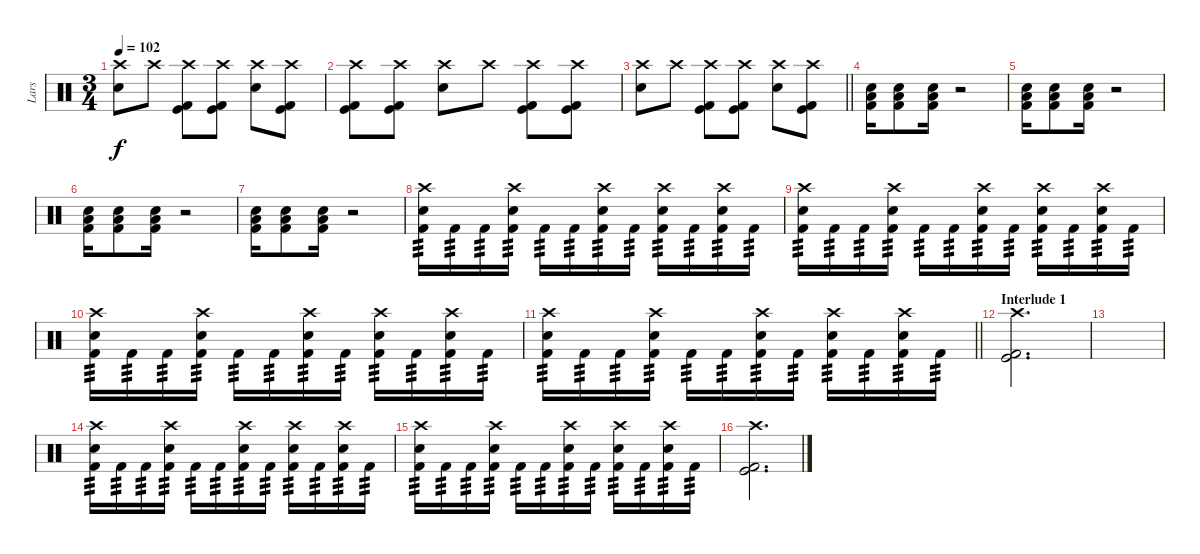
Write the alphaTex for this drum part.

\track ("Lars" "Lars") {instrument percussion}
\staff {score}
\articulation defaults
\ts (3 4)
\tempo 102
\clef neutral
\ks c
("Crash high (hit)" "Electric Snare (hit)").8{dy f} "Crash high (hit)".8 ("Crash high (hit)" "Kick (hit)" "Kick (hit) 2").8 ("Crash high (hit)" "Kick (hit)" "Kick (hit) 2").8 ("Crash high (hit)" "Electric Snare (hit)").8 ("Crash high (hit)" "Kick (hit)" "Kick (hit) 2").8 |
("Crash high (hit)" "Kick (hit)" "Kick (hit) 2").8 ("Crash high (hit)" "Kick (hit)" "Kick (hit) 2").8 ("Crash high (hit)" "Electric Snare (hit)").8 "Crash high (hit)".8 ("Crash high (hit)" "Kick (hit)" "Kick (hit) 2").8 ("Crash high (hit)" "Kick (hit)" "Kick (hit) 2").8 |
\barLineRight lightlight
("Crash high (hit)" "Electric Snare (hit)").8 "Crash high (hit)".8 ("Crash high (hit)" "Kick (hit)" "Kick (hit) 2").8 ("Crash high (hit)" "Kick (hit)" "Kick (hit) 2").8 ("Crash high (hit)" "Electric Snare (hit)").8 ("Crash high (hit)" "Kick (hit)" "Kick (hit) 2").8 |
\section ("" "")
("Electric Snare (hit)" "Low Floor Tom (hit)" "Kick (hit) 2").16 ("Electric Snare (hit)" "Low Floor Tom (hit)" "Kick (hit) 2").8 ("Electric Snare (hit)" "Low Floor Tom (hit)" "Kick (hit) 2").16 r.2 |
("Electric Snare (hit)" "Low Floor Tom (hit)" "Kick (hit) 2").16 ("Electric Snare (hit)" "Low Floor Tom (hit)" "Kick (hit) 2").8 ("Electric Snare (hit)" "Low Floor Tom (hit)" "Kick (hit) 2").16 r.2 |
("Electric Snare (hit)" "Low Floor Tom (hit)" "Kick (hit) 2").16 ("Electric Snare (hit)" "Low Floor Tom (hit)" "Kick (hit) 2").8 ("Electric Snare (hit)" "Low Floor Tom (hit)" "Kick (hit) 2").16 r.2 |
("Electric Snare (hit)" "Low Floor Tom (hit)" "Kick (hit) 2").16 ("Electric Snare (hit)" "Low Floor Tom (hit)" "Kick (hit) 2").8 ("Electric Snare (hit)" "Low Floor Tom (hit)" "Kick (hit) 2").16 r.2 |
("Crash high (hit)" "Electric Snare (hit)" "Kick (hit) 2").16{tp 3} "Kick (hit) 2".16{tp 3} "Kick (hit) 2".16{tp 3} ("Crash high (hit)" "Electric Snare (hit)" "Kick (hit) 2").16{tp 3} "Kick (hit) 2".16{tp 3} "Kick (hit) 2".16{tp 3} ("Crash high (hit)" "Electric Snare (hit)" "Kick (hit) 2").16{tp 3} "Kick (hit) 2".16{tp 3} ("Crash high (hit)" "Electric Snare (hit)" "Kick (hit) 2").16{tp 3} "Kick (hit) 2".16{tp 3} ("Crash high (hit)" "Electric Snare (hit)" "Kick (hit) 2").16{tp 3} "Kick (hit) 2".16{tp 3} |
("Crash high (hit)" "Electric Snare (hit)" "Kick (hit) 2").16{tp 3} "Kick (hit) 2".16{tp 3} "Kick (hit) 2".16{tp 3} ("Crash high (hit)" "Electric Snare (hit)" "Kick (hit) 2").16{tp 3} "Kick (hit) 2".16{tp 3} "Kick (hit) 2".16{tp 3} ("Crash high (hit)" "Electric Snare (hit)" "Kick (hit) 2").16{tp 3} "Kick (hit) 2".16{tp 3} ("Crash high (hit)" "Electric Snare (hit)" "Kick (hit) 2").16{tp 3} "Kick (hit) 2".16{tp 3} ("Crash high (hit)" "Electric Snare (hit)" "Kick (hit) 2").16{tp 3} "Kick (hit) 2".16{tp 3} |
("Crash high (hit)" "Electric Snare (hit)" "Kick (hit) 2").16{tp 3} "Kick (hit) 2".16{tp 3} "Kick (hit) 2".16{tp 3} ("Crash high (hit)" "Electric Snare (hit)" "Kick (hit) 2").16{tp 3} "Kick (hit) 2".16{tp 3} "Kick (hit) 2".16{tp 3} ("Crash high (hit)" "Electric Snare (hit)" "Kick (hit) 2").16{tp 3} "Kick (hit) 2".16{tp 3} ("Crash high (hit)" "Electric Snare (hit)" "Kick (hit) 2").16{tp 3} "Kick (hit) 2".16{tp 3} ("Crash high (hit)" "Electric Snare (hit)" "Kick (hit) 2").16{tp 3} "Kick (hit) 2".16{tp 3} |
\barLineRight lightlight
("Crash high (hit)" "Electric Snare (hit)" "Kick (hit) 2").16{tp 3} "Kick (hit) 2".16{tp 3} "Kick (hit) 2".16{tp 3} ("Crash high (hit)" "Electric Snare (hit)" "Kick (hit) 2").16{tp 3} "Kick (hit) 2".16{tp 3} "Kick (hit) 2".16{tp 3} ("Crash high (hit)" "Electric Snare (hit)" "Kick (hit) 2").16{tp 3} "Kick (hit) 2".16{tp 3} ("Crash high (hit)" "Electric Snare (hit)" "Kick (hit) 2").16{tp 3} "Kick (hit) 2".16{tp 3} ("Crash high (hit)" "Electric Snare (hit)" "Kick (hit) 2").16{tp 3} "Kick (hit) 2".16{tp 3} |
\section ("" "Interlude 1")
("Crash high (hit)" "Kick (hit)" "Kick (hit) 2").2{d} |
|
("Crash high (hit)" "Electric Snare (hit)" "Kick (hit) 2").16{tp 3} "Kick (hit) 2".16{tp 3} "Kick (hit) 2".16{tp 3} ("Crash high (hit)" "Electric Snare (hit)" "Kick (hit) 2").16{tp 3} "Kick (hit) 2".16{tp 3} "Kick (hit) 2".16{tp 3} ("Crash high (hit)" "Electric Snare (hit)" "Kick (hit) 2").16{tp 3} "Kick (hit) 2".16{tp 3} ("Crash high (hit)" "Electric Snare (hit)" "Kick (hit) 2").16{tp 3} "Kick (hit) 2".16{tp 3} ("Crash high (hit)" "Electric Snare (hit)" "Kick (hit) 2").16{tp 3} "Kick (hit) 2".16{tp 3} |
("Crash high (hit)" "Electric Snare (hit)" "Kick (hit) 2").16{tp 3} "Kick (hit) 2".16{tp 3} "Kick (hit) 2".16{tp 3} ("Crash high (hit)" "Electric Snare (hit)" "Kick (hit) 2").16{tp 3} "Kick (hit) 2".16{tp 3} "Kick (hit) 2".16{tp 3} ("Crash high (hit)" "Electric Snare (hit)" "Kick (hit) 2").16{tp 3} "Kick (hit) 2".16{tp 3} ("Crash high (hit)" "Electric Snare (hit)" "Kick (hit) 2").16{tp 3} "Kick (hit) 2".16{tp 3} ("Crash high (hit)" "Electric Snare (hit)" "Kick (hit) 2").16{tp 3} "Kick (hit) 2".16{tp 3} |
("Crash high (hit)" "Kick (hit)" "Kick (hit) 2").2{d}
